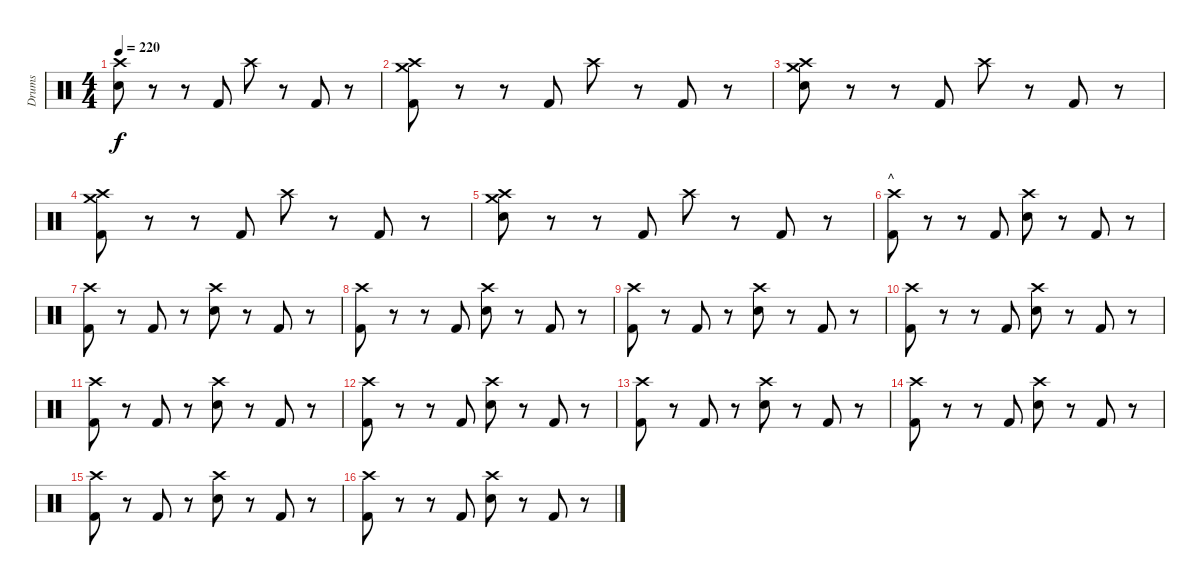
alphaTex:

\track ("Drums" "Drums") {instrument percussion}
\staff {score}
\articulation defaults
\ts (4 4)
\tempo 220
\clef neutral
\ks c
("Crash high (hit)" "Electric Snare (hit)").8{dy f} r.8 r.8 "Kick (hit) 2".8 "Crash high (hit)".8 r.8 "Kick (hit) 2".8 r.8 |
("Crash high (hit)" "Crash medium (hit)" "Kick (hit) 2").8 r.8 r.8 "Kick (hit) 2".8 "Crash high (hit)".8 r.8 "Kick (hit) 2".8 r.8 |
("Crash high (hit)" "Crash medium (hit)" "Electric Snare (hit)").8 r.8 r.8 "Kick (hit) 2".8 "Crash high (hit)".8 r.8 "Kick (hit) 2".8 r.8 |
("Crash high (hit)" "Crash medium (hit)" "Kick (hit) 2").8 r.8 r.8 "Kick (hit) 2".8 "Crash high (hit)".8 r.8 "Kick (hit) 2".8 r.8 |
("Crash high (hit)" "Crash medium (hit)" "Electric Snare (hit)").8 r.8 r.8 "Kick (hit) 2".8 "Crash high (hit)".8 r.8 "Kick (hit) 2".8 r.8 |
\section ("" "^")
("Crash high (hit)" "Kick (hit) 2").8 r.8 r.8 "Kick (hit) 2".8 ("Crash high (hit)" "Electric Snare (hit)").8 r.8 "Kick (hit) 2".8 r.8 |
("Crash high (hit)" "Kick (hit) 2").8 r.8 "Kick (hit) 2".8 r.8 ("Crash high (hit)" "Electric Snare (hit)").8 r.8 "Kick (hit) 2".8 r.8 |
("Crash high (hit)" "Kick (hit) 2").8 r.8 r.8 "Kick (hit) 2".8 ("Crash high (hit)" "Electric Snare (hit)").8 r.8 "Kick (hit) 2".8 r.8 |
("Crash high (hit)" "Kick (hit) 2").8 r.8 "Kick (hit) 2".8 r.8 ("Crash high (hit)" "Electric Snare (hit)").8 r.8 "Kick (hit) 2".8 r.8 |
("Crash high (hit)" "Kick (hit) 2").8 r.8 r.8 "Kick (hit) 2".8 ("Crash high (hit)" "Electric Snare (hit)").8 r.8 "Kick (hit) 2".8 r.8 |
("Crash high (hit)" "Kick (hit) 2").8 r.8 "Kick (hit) 2".8 r.8 ("Crash high (hit)" "Electric Snare (hit)").8 r.8 "Kick (hit) 2".8 r.8 |
("Crash high (hit)" "Kick (hit) 2").8 r.8 r.8 "Kick (hit) 2".8 ("Crash high (hit)" "Electric Snare (hit)").8 r.8 "Kick (hit) 2".8 r.8 |
("Crash high (hit)" "Kick (hit) 2").8 r.8 "Kick (hit) 2".8 r.8 ("Crash high (hit)" "Electric Snare (hit)").8 r.8 "Kick (hit) 2".8 r.8 |
("Crash high (hit)" "Kick (hit) 2").8 r.8 r.8 "Kick (hit) 2".8 ("Crash high (hit)" "Electric Snare (hit)").8 r.8 "Kick (hit) 2".8 r.8 |
("Crash high (hit)" "Kick (hit) 2").8 r.8 "Kick (hit) 2".8 r.8 ("Crash high (hit)" "Electric Snare (hit)").8 r.8 "Kick (hit) 2".8 r.8 |
("Crash high (hit)" "Kick (hit) 2").8 r.8 r.8 "Kick (hit) 2".8 ("Crash high (hit)" "Electric Snare (hit)").8 r.8 "Kick (hit) 2".8 r.8
